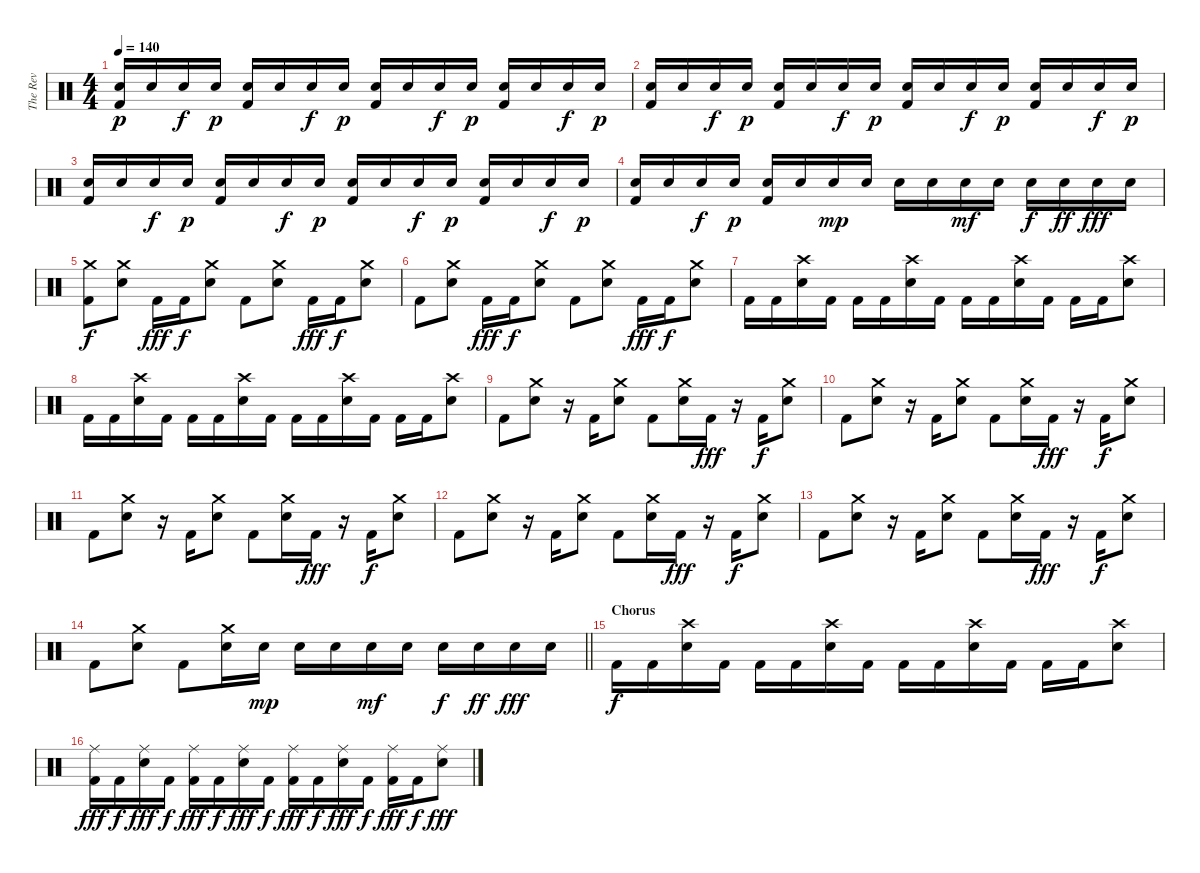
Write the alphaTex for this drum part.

\track ("The Rev" "The Rev") {instrument percussion}
\staff {score}
\articulation defaults
\ts (4 4)
\tempo 140
\clef neutral
\ks c
("Snare (hit) 2" "Kick (hit) 2").16{dy p} "Snare (hit) 2".16 "Snare (hit) 2".16{dy f} "Snare (hit) 2".16{dy p} ("Snare (hit) 2" "Kick (hit) 2").16 "Snare (hit) 2".16 "Snare (hit) 2".16{dy f} "Snare (hit) 2".16{dy p} ("Snare (hit) 2" "Kick (hit) 2").16 "Snare (hit) 2".16 "Snare (hit) 2".16{dy f} "Snare (hit) 2".16{dy p} ("Snare (hit) 2" "Kick (hit) 2").16 "Snare (hit) 2".16 "Snare (hit) 2".16{dy f} "Snare (hit) 2".16{dy p} |
("Snare (hit) 2" "Kick (hit) 2").16 "Snare (hit) 2".16 "Snare (hit) 2".16{dy f} "Snare (hit) 2".16{dy p} ("Snare (hit) 2" "Kick (hit) 2").16 "Snare (hit) 2".16 "Snare (hit) 2".16{dy f} "Snare (hit) 2".16{dy p} ("Snare (hit) 2" "Kick (hit) 2").16 "Snare (hit) 2".16 "Snare (hit) 2".16{dy f} "Snare (hit) 2".16{dy p} ("Snare (hit) 2" "Kick (hit) 2").16 "Snare (hit) 2".16 "Snare (hit) 2".16{dy f} "Snare (hit) 2".16{dy p} |
("Snare (hit) 2" "Kick (hit) 2").16 "Snare (hit) 2".16 "Snare (hit) 2".16{dy f} "Snare (hit) 2".16{dy p} ("Snare (hit) 2" "Kick (hit) 2").16 "Snare (hit) 2".16 "Snare (hit) 2".16{dy f} "Snare (hit) 2".16{dy p} ("Snare (hit) 2" "Kick (hit) 2").16 "Snare (hit) 2".16 "Snare (hit) 2".16{dy f} "Snare (hit) 2".16{dy p} ("Snare (hit) 2" "Kick (hit) 2").16 "Snare (hit) 2".16 "Snare (hit) 2".16{dy f} "Snare (hit) 2".16{dy p} |
("Snare (hit) 2" "Kick (hit) 2").16 "Snare (hit) 2".16 "Snare (hit) 2".16{dy f} "Snare (hit) 2".16{dy p} ("Snare (hit) 2" "Kick (hit) 2").16 "Snare (hit) 2".16 "Snare (hit) 2".16{dy mp} "Snare (hit) 2".16 "Snare (hit) 2".16 "Snare (hit) 2".16 "Snare (hit) 2".16{dy mf} "Snare (hit) 2".16 "Snare (hit) 2".16{dy f} "Snare (hit) 2".16{dy ff} "Snare (hit) 2".16{dy fff} "Snare (hit) 2".16 |
("Crash medium (hit)" "Kick (hit) 2").8{dy f} ("Crash medium (hit)" "Snare (hit) 2").8 "Kick (hit) 2".16{dy fff} "Kick (hit) 2".16{dy f} ("Crash medium (hit)" "Snare (hit) 2").8 "Kick (hit) 2".8 ("Crash medium (hit)" "Snare (hit) 2").8 "Kick (hit) 2".16{dy fff} "Kick (hit) 2".16{dy f} ("Crash medium (hit)" "Snare (hit) 2").8 |
"Kick (hit) 2".8 ("Crash medium (hit)" "Snare (hit) 2").8 "Kick (hit) 2".16{dy fff} "Kick (hit) 2".16{dy f} ("Crash medium (hit)" "Snare (hit) 2").8 "Kick (hit) 2".8 ("Crash medium (hit)" "Snare (hit) 2").8 "Kick (hit) 2".16{dy fff} "Kick (hit) 2".16{dy f} ("Crash medium (hit)" "Snare (hit) 2").8 |
"Kick (hit) 2".16 "Kick (hit) 2".16 ("Crash high (hit)" "Snare (hit) 2").16 "Kick (hit) 2".16 "Kick (hit) 2".16 "Kick (hit) 2".16 ("Crash high (hit)" "Snare (hit) 2").16 "Kick (hit) 2".16 "Kick (hit) 2".16 "Kick (hit) 2".16 ("Crash high (hit)" "Snare (hit) 2").16 "Kick (hit) 2".16 "Kick (hit) 2".16 "Kick (hit) 2".16 ("Crash high (hit)" "Snare (hit) 2").8 |
"Kick (hit) 2".16 "Kick (hit) 2".16 ("Crash high (hit)" "Snare (hit) 2").16 "Kick (hit) 2".16 "Kick (hit) 2".16 "Kick (hit) 2".16 ("Crash high (hit)" "Snare (hit) 2").16 "Kick (hit) 2".16 "Kick (hit) 2".16 "Kick (hit) 2".16 ("Crash high (hit)" "Snare (hit) 2").16 "Kick (hit) 2".16 "Kick (hit) 2".16 "Kick (hit) 2".16 ("Crash high (hit)" "Snare (hit) 2").8 |
"Kick (hit) 2".8 ("Crash medium (hit)" "Snare (hit) 2").8 r.16 "Kick (hit) 2".16 ("Crash medium (hit)" "Snare (hit) 2").8 "Kick (hit) 2".8 ("Crash medium (hit)" "Snare (hit) 2").16 "Kick (hit) 2".16{dy fff} r.16 "Kick (hit) 2".16{dy f} ("Crash medium (hit)" "Snare (hit) 2").8 |
"Kick (hit) 2".8 ("Crash medium (hit)" "Snare (hit) 2").8 r.16 "Kick (hit) 2".16 ("Crash medium (hit)" "Snare (hit) 2").8 "Kick (hit) 2".8 ("Crash medium (hit)" "Snare (hit) 2").16 "Kick (hit) 2".16{dy fff} r.16 "Kick (hit) 2".16{dy f} ("Crash medium (hit)" "Snare (hit) 2").8 |
"Kick (hit) 2".8 ("Crash medium (hit)" "Snare (hit) 2").8 r.16 "Kick (hit) 2".16 ("Crash medium (hit)" "Snare (hit) 2").8 "Kick (hit) 2".8 ("Crash medium (hit)" "Snare (hit) 2").16 "Kick (hit) 2".16{dy fff} r.16 "Kick (hit) 2".16{dy f} ("Crash medium (hit)" "Snare (hit) 2").8 |
"Kick (hit) 2".8 ("Crash medium (hit)" "Snare (hit) 2").8 r.16 "Kick (hit) 2".16 ("Crash medium (hit)" "Snare (hit) 2").8 "Kick (hit) 2".8 ("Crash medium (hit)" "Snare (hit) 2").16 "Kick (hit) 2".16{dy fff} r.16 "Kick (hit) 2".16{dy f} ("Crash medium (hit)" "Snare (hit) 2").8 |
"Kick (hit) 2".8 ("Crash medium (hit)" "Snare (hit) 2").8 r.16 "Kick (hit) 2".16 ("Crash medium (hit)" "Snare (hit) 2").8 "Kick (hit) 2".8 ("Crash medium (hit)" "Snare (hit) 2").16 "Kick (hit) 2".16{dy fff} r.16 "Kick (hit) 2".16{dy f} ("Crash medium (hit)" "Snare (hit) 2").8 |
\barLineRight lightlight "Kick (hit) 2".8
("Crash medium (hit)" "Snare (hit) 2").8 "Kick (hit) 2".8 ("Crash medium (hit)" "Snare (hit) 2").16 "Snare (hit) 2".16{dy mp} "Snare (hit) 2".16 "Snare (hit) 2".16 "Snare (hit) 2".16{dy mf} "Snare (hit) 2".16 "Snare (hit) 2".16{dy f} "Snare (hit) 2".16{dy ff} "Snare (hit) 2".16{dy fff} "Snare (hit) 2".16 |
\section ("" "Chorus")
"Kick (hit) 2".16{dy f} "Kick (hit) 2".16 ("Crash high (hit)" "Snare (hit) 2").16 "Kick (hit) 2".16 "Kick (hit) 2".16 "Kick (hit) 2".16 ("Crash high (hit)" "Snare (hit) 2").16 "Kick (hit) 2".16 "Kick (hit) 2".16 "Kick (hit) 2".16 ("Crash high (hit)" "Snare (hit) 2").16 "Kick (hit) 2".16 "Kick (hit) 2".16 "Kick (hit) 2".16 ("Crash high (hit)" "Snare (hit) 2").8 |
("Ride (middle)" "Kick (hit) 2").16{dy fff} "Kick (hit) 2".16{dy f} ("Ride (middle)" "Snare (hit) 2").16{dy fff} "Kick (hit) 2".16{dy f} ("Ride (middle)" "Kick (hit) 2").16{dy fff} "Kick (hit) 2".16{dy f} ("Ride (middle)" "Snare (hit) 2").16{dy fff} "Kick (hit) 2".16{dy f} ("Ride (middle)" "Kick (hit) 2").16{dy fff} "Kick (hit) 2".16{dy f} ("Ride (middle)" "Snare (hit) 2").16{dy fff} "Kick (hit) 2".16{dy f} ("Ride (middle)" "Kick (hit) 2").16{dy fff} "Kick (hit) 2".16{dy f} ("Ride (middle)" "Snare (hit) 2").8{dy fff}
